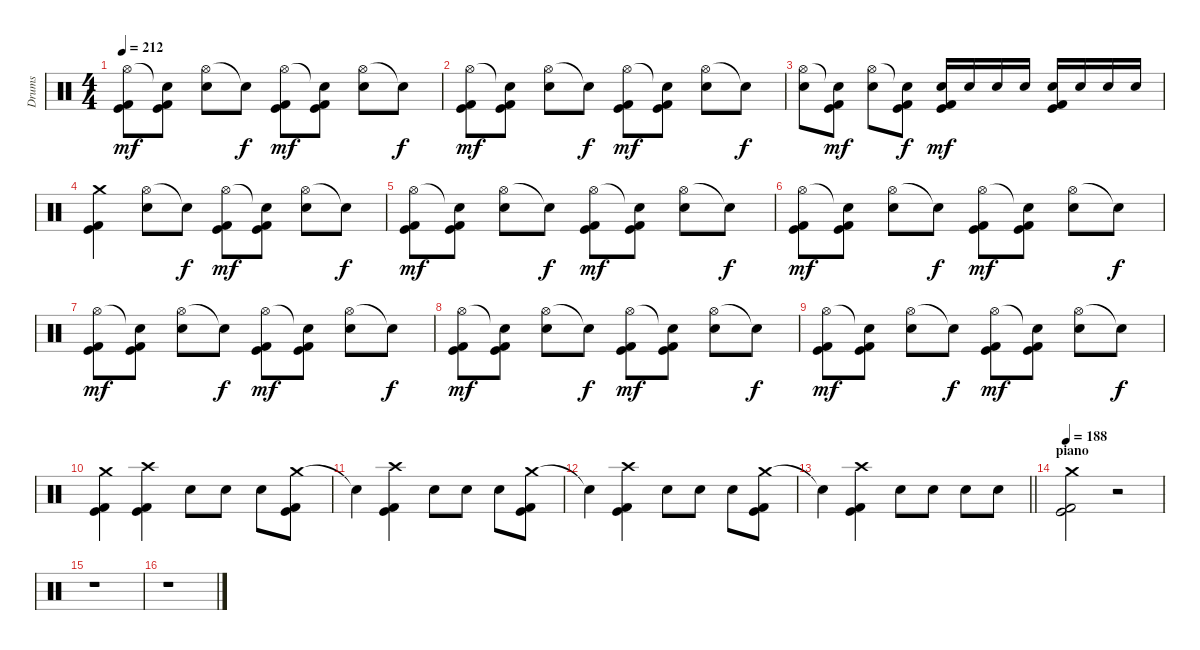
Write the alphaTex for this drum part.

\track ("Drums" "Drums") {instrument percussion}
\staff {score}
\articulation defaults
\ts (4 4)
\tempo 212
\clef neutral
\ks c
("Hi-Hat (open)" "Kick (hit)" "Kick (hit) 2").8{dy mf} ("Snare (hit)"{t} "Kick (hit)" "Kick (hit) 2").8 ("Hi-Hat (open)" "Snare (hit) 2").8 "Snare (hit)"{t}.8{dy f} ("Hi-Hat (open)" "Kick (hit)" "Kick (hit) 2").8{dy mf} ("Snare (hit)"{t} "Kick (hit)" "Kick (hit) 2").8 ("Hi-Hat (open)" "Snare (hit) 2").8 "Snare (hit)"{t}.8{dy f} |
("Hi-Hat (open)" "Kick (hit)" "Kick (hit) 2").8{dy mf} ("Snare (hit)"{t} "Kick (hit)" "Kick (hit) 2").8 ("Hi-Hat (open)" "Snare (hit) 2").8 "Snare (hit)"{t}.8{dy f} ("Hi-Hat (open)" "Kick (hit)" "Kick (hit) 2").8{dy mf} ("Snare (hit)"{t} "Kick (hit)" "Kick (hit) 2").8 ("Hi-Hat (open)" "Snare (hit) 2").8 "Snare (hit)"{t}.8{dy f} |
("Hi-Hat (open)" "Snare (hit) 2").8 ("Snare (hit)"{t} "Kick (hit)" "Kick (hit) 2").8{dy mf} ("Hi-Hat (open)" "Snare (hit) 2").8 ("Snare (hit)"{t} "Kick (hit)" "Kick (hit) 2").8{dy f} ("Snare (hit) 2" "Kick (hit)" "Kick (hit) 2").16{dy mf} "Snare (hit) 2".16 "Snare (hit) 2".16 "Snare (hit) 2".16 ("Snare (hit) 2" "Kick (hit)" "Kick (hit) 2").16 "Snare (hit) 2".16 "Snare (hit) 2".16 "Snare (hit) 2".16 |
("Crash medium (hit)" "Kick (hit)" "Kick (hit) 2").4 ("Hi-Hat (open)" "Snare (hit) 2").8 "Snare (hit)"{t}.8{dy f} ("Hi-Hat (open)" "Kick (hit)" "Kick (hit) 2").8{dy mf} ("Snare (hit)"{t} "Kick (hit)" "Kick (hit) 2").8 ("Hi-Hat (open)" "Snare (hit) 2").8 "Snare (hit)"{t}.8{dy f} |
("Hi-Hat (open)" "Kick (hit)" "Kick (hit) 2").8{dy mf} ("Snare (hit)"{t} "Kick (hit)" "Kick (hit) 2").8 ("Hi-Hat (open)" "Snare (hit) 2").8 "Snare (hit)"{t}.8{dy f} ("Hi-Hat (open)" "Kick (hit)" "Kick (hit) 2").8{dy mf} ("Snare (hit)"{t} "Kick (hit)" "Kick (hit) 2").8 ("Hi-Hat (open)" "Snare (hit) 2").8 "Snare (hit)"{t}.8{dy f} |
("Hi-Hat (open)" "Kick (hit)" "Kick (hit) 2").8{dy mf} ("Snare (hit)"{t} "Kick (hit)" "Kick (hit) 2").8 ("Hi-Hat (open)" "Snare (hit) 2").8 "Snare (hit)"{t}.8{dy f} ("Hi-Hat (open)" "Kick (hit)" "Kick (hit) 2").8{dy mf} ("Snare (hit)"{t} "Kick (hit)" "Kick (hit) 2").8 ("Hi-Hat (open)" "Snare (hit) 2").8 "Snare (hit)"{t}.8{dy f} |
("Hi-Hat (open)" "Kick (hit)" "Kick (hit) 2").8{dy mf} ("Snare (hit)"{t} "Kick (hit)" "Kick (hit) 2").8 ("Hi-Hat (open)" "Snare (hit) 2").8 "Snare (hit)"{t}.8{dy f} ("Hi-Hat (open)" "Kick (hit)" "Kick (hit) 2").8{dy mf} ("Snare (hit)"{t} "Kick (hit)" "Kick (hit) 2").8 ("Hi-Hat (open)" "Snare (hit) 2").8 "Snare (hit)"{t}.8{dy f} |
("Hi-Hat (open)" "Kick (hit)" "Kick (hit) 2").8{dy mf} ("Snare (hit)"{t} "Kick (hit)" "Kick (hit) 2").8 ("Hi-Hat (open)" "Snare (hit) 2").8 "Snare (hit)"{t}.8{dy f} ("Hi-Hat (open)" "Kick (hit)" "Kick (hit) 2").8{dy mf} ("Snare (hit)"{t} "Kick (hit)" "Kick (hit) 2").8 ("Hi-Hat (open)" "Snare (hit) 2").8 "Snare (hit)"{t}.8{dy f} |
("Hi-Hat (open)" "Kick (hit)" "Kick (hit) 2").8{dy mf} ("Snare (hit)"{t} "Kick (hit)" "Kick (hit) 2").8 ("Hi-Hat (open)" "Snare (hit) 2").8 "Snare (hit)"{t}.8{dy f} ("Hi-Hat (open)" "Kick (hit)" "Kick (hit) 2").8{dy mf} ("Snare (hit)"{t} "Kick (hit)" "Kick (hit) 2").8 ("Hi-Hat (open)" "Snare (hit) 2").8 "Snare (hit)"{t}.8{dy f} |
("Crash medium (hit)" "Kick (hit)" "Kick (hit) 2").4 ("Crash high (hit)" "Kick (hit)" "Kick (hit) 2").4 "Snare (hit) 2".8 "Snare (hit) 2".8 "Snare (hit) 2".8 ("Crash medium (hit)" "Kick (hit)" "Kick (hit) 2").8 |
"Snare (hit)"{t}.4 ("Crash high (hit)" "Kick (hit)" "Kick (hit) 2").4 "Snare (hit) 2".8 "Snare (hit) 2".8 "Snare (hit) 2".8 ("Crash medium (hit)" "Kick (hit)" "Kick (hit) 2").8 |
"Snare (hit)"{t}.4 ("Crash high (hit)" "Kick (hit)" "Kick (hit) 2").4 "Snare (hit) 2".8 "Snare (hit) 2".8 "Snare (hit) 2".8 ("Crash medium (hit)" "Kick (hit)" "Kick (hit) 2").8 |
\barLineRight lightlight "Snare (hit)"{t}.4
("Crash high (hit)" "Kick (hit)" "Kick (hit) 2").4 "Snare (hit) 2".8 "Snare (hit) 2".8 "Snare (hit) 2".8 "Snare (hit) 2".8 |
\section ("" "piano")
\tempo 188
("Crash medium (hit)" "Kick (hit)" "Kick (hit) 2").2 r.2 |
r.1 |
r.1
